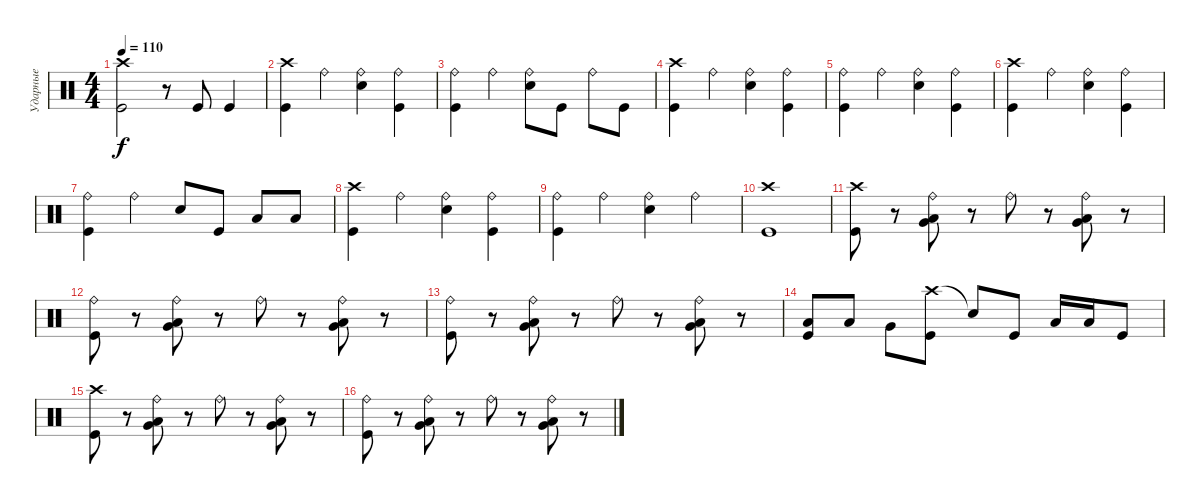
\track ("Ударные" "Ударные") {instrument percussion}
\staff {score}
\articulation defaults
\ts (4 4)
\tempo 110
\clef neutral
\ks c
("Crash high (hit)" "Kick (hit)").2{dy f} r.8 "Kick (hit)".8 "Kick (hit)".4 |
("Crash high (hit)" "Kick (hit)").4 "Ride (bell)".4 ("Ride (bell)" "Electric Snare (hit)").4 ("Ride (bell)" "Kick (hit)").4 |
("Ride (bell)" "Kick (hit)").4 "Ride (bell)".4 ("Ride (bell)" "Electric Snare (hit)").8 "Kick (hit)".8 "Ride (bell)".8 "Kick (hit)".8 |
("Crash high (hit)" "Kick (hit)").4 "Ride (bell)".4 ("Ride (bell)" "Electric Snare (hit)").4 ("Ride (bell)" "Kick (hit)").4 |
("Ride (bell)" "Kick (hit)").4 "Ride (bell)".4 ("Ride (bell)" "Electric Snare (hit)").4 ("Ride (bell)" "Kick (hit)").4 |
("Crash high (hit)" "Kick (hit)").4 "Ride (bell)".4 ("Ride (bell)" "Electric Snare (hit)").4 ("Ride (bell)" "Kick (hit)").4 |
("Ride (bell)" "Kick (hit)").4 "Ride (bell)".4 "Electric Snare (hit)".8 "Kick (hit)".8 "Low Tom (hit)".8 "Low Tom (hit)".8 |
("Crash high (hit)" "Kick (hit)").4 "Ride (bell)".4 ("Ride (bell)" "Electric Snare (hit)").4 ("Ride (bell)" "Kick (hit)").4 |
("Ride (bell)" "Kick (hit)").4 "Ride (bell)".4 ("Ride (bell)" "Electric Snare (hit)").4 "Ride (bell)".4 |
("Crash high (hit)" "Kick (hit)").1 |
("Crash high (hit)" "Kick (hit)").8 r.8 ("Ride (bell)" "Very Low Tom (hit)" "Low Tom (hit)").8 r.8 "Ride (bell)".8 r.8 ("Ride (bell)" "Very Low Tom (hit)" "Low Tom (hit)").8 r.8 |
("Ride (bell)" "Kick (hit)").8 r.8 ("Ride (bell)" "Very Low Tom (hit)" "Low Tom (hit)").8 r.8 "Ride (bell)".8 r.8 ("Ride (bell)" "Very Low Tom (hit)" "Low Tom (hit)").8 r.8 |
("Ride (bell)" "Kick (hit)").8 r.8 ("Ride (bell)" "Very Low Tom (hit)" "Low Tom (hit)").8 r.8 "Ride (bell)".8 r.8 ("Ride (bell)" "Very Low Tom (hit)" "Low Tom (hit)").8 r.8 |
("Low Tom (hit)" "Kick (hit)").8 "Low Tom (hit)".8 "Very Low Tom (hit)".8 ("Crash high (hit)" "Kick (hit)").8 "Snare (hit)"{t}.8 "Kick (hit)".8 "Low Tom (hit)".16 "Low Tom (hit)".16 "Kick (hit)".8 |
("Crash high (hit)" "Kick (hit)").8 r.8 ("Ride (bell)" "Very Low Tom (hit)" "Low Tom (hit)").8 r.8 "Ride (bell)".8 r.8 ("Ride (bell)" "Very Low Tom (hit)" "Low Tom (hit)").8 r.8 |
("Ride (bell)" "Kick (hit)").8 r.8 ("Ride (bell)" "Very Low Tom (hit)" "Low Tom (hit)").8 r.8 "Ride (bell)".8 r.8 ("Ride (bell)" "Very Low Tom (hit)" "Low Tom (hit)").8 r.8
